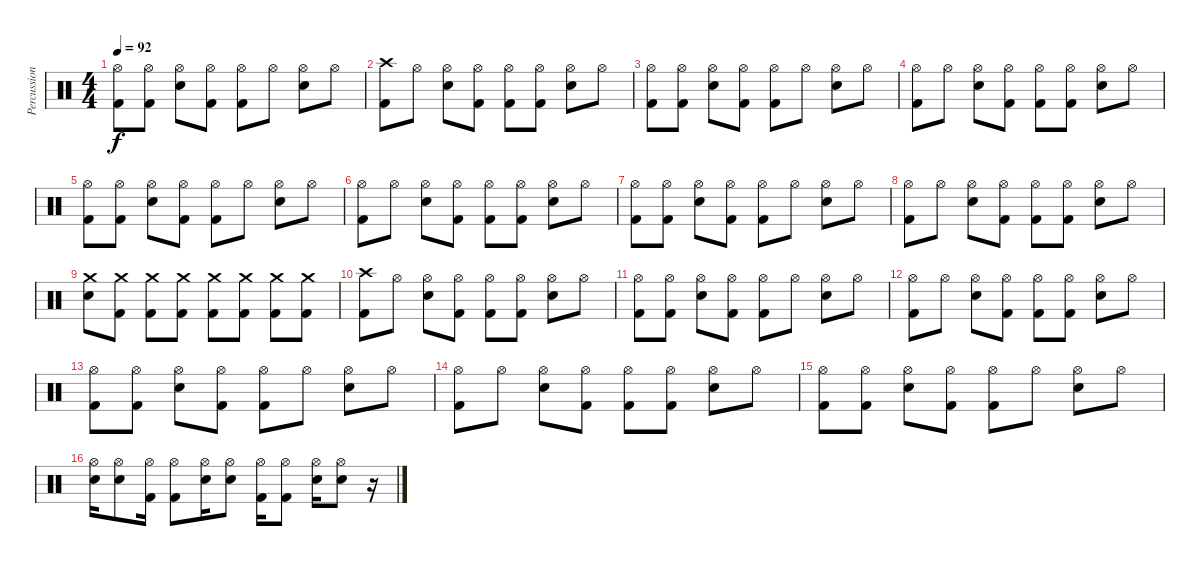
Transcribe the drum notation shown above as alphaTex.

\track ("Percussion" "Percussion") {instrument percussion}
\staff {score}
\articulation defaults
\ts (4 4)
\tempo 92
\clef neutral
\ks c
("Hi-Hat (open)" "Kick (hit) 2").8{dy f} ("Hi-Hat (open)" "Kick (hit) 2").8 ("Hi-Hat (open)" "Electric Snare (hit)").8 ("Hi-Hat (open)" "Kick (hit) 2").8 ("Hi-Hat (open)" "Kick (hit) 2").8 "Hi-Hat (open)".8 ("Hi-Hat (open)" "Electric Snare (hit)").8 "Hi-Hat (open)".8 |
("Crash high (hit)" "Kick (hit) 2").8 "Hi-Hat (open)".8 ("Hi-Hat (open)" "Electric Snare (hit)").8 ("Hi-Hat (open)" "Kick (hit) 2").8 ("Hi-Hat (open)" "Kick (hit) 2").8 ("Hi-Hat (open)" "Kick (hit) 2").8 ("Hi-Hat (open)" "Electric Snare (hit)").8 "Hi-Hat (open)".8 |
("Hi-Hat (open)" "Kick (hit) 2").8 ("Hi-Hat (open)" "Kick (hit) 2").8 ("Hi-Hat (open)" "Electric Snare (hit)").8 ("Hi-Hat (open)" "Kick (hit) 2").8 ("Hi-Hat (open)" "Kick (hit) 2").8 "Hi-Hat (open)".8 ("Hi-Hat (open)" "Electric Snare (hit)").8 "Hi-Hat (open)".8 |
("Hi-Hat (open)" "Kick (hit) 2").8 "Hi-Hat (open)".8 ("Hi-Hat (open)" "Electric Snare (hit)").8 ("Hi-Hat (open)" "Kick (hit) 2").8 ("Hi-Hat (open)" "Kick (hit) 2").8 ("Hi-Hat (open)" "Kick (hit) 2").8 ("Hi-Hat (open)" "Electric Snare (hit)").8 "Hi-Hat (open)".8 |
("Hi-Hat (open)" "Kick (hit) 2").8 ("Hi-Hat (open)" "Kick (hit) 2").8 ("Hi-Hat (open)" "Electric Snare (hit)").8 ("Hi-Hat (open)" "Kick (hit) 2").8 ("Hi-Hat (open)" "Kick (hit) 2").8 "Hi-Hat (open)".8 ("Hi-Hat (open)" "Electric Snare (hit)").8 "Hi-Hat (open)".8 |
("Hi-Hat (open)" "Kick (hit) 2").8 "Hi-Hat (open)".8 ("Hi-Hat (open)" "Electric Snare (hit)").8 ("Hi-Hat (open)" "Kick (hit) 2").8 ("Hi-Hat (open)" "Kick (hit) 2").8 ("Hi-Hat (open)" "Kick (hit) 2").8 ("Hi-Hat (open)" "Electric Snare (hit)").8 "Hi-Hat (open)".8 |
("Hi-Hat (open)" "Kick (hit) 2").8 ("Hi-Hat (open)" "Kick (hit) 2").8 ("Hi-Hat (open)" "Electric Snare (hit)").8 ("Hi-Hat (open)" "Kick (hit) 2").8 ("Hi-Hat (open)" "Kick (hit) 2").8 "Hi-Hat (open)".8 ("Hi-Hat (open)" "Electric Snare (hit)").8 "Hi-Hat (open)".8 |
("Hi-Hat (open)" "Kick (hit) 2").8 "Hi-Hat (open)".8 ("Hi-Hat (open)" "Electric Snare (hit)").8 ("Hi-Hat (open)" "Kick (hit) 2").8 ("Hi-Hat (open)" "Kick (hit) 2").8 ("Hi-Hat (open)" "Kick (hit) 2").8 ("Hi-Hat (open)" "Electric Snare (hit)").8 "Hi-Hat (open)".8 |
("Crash medium (hit)" "Snare (hit)").8 ("Crash medium (hit)" "Kick (hit) 2").8 ("Crash medium (hit)" "Kick (hit) 2").8 ("Crash medium (hit)" "Kick (hit) 2").8 ("Crash medium (hit)" "Kick (hit) 2").8 ("Crash medium (hit)" "Kick (hit) 2").8 ("Crash medium (hit)" "Kick (hit) 2").8 ("Crash medium (hit)" "Kick (hit) 2").8 |
("Crash high (hit)" "Kick (hit) 2").8 "Hi-Hat (open)".8 ("Hi-Hat (open)" "Electric Snare (hit)").8 ("Hi-Hat (open)" "Kick (hit) 2").8 ("Hi-Hat (open)" "Kick (hit) 2").8 ("Hi-Hat (open)" "Kick (hit) 2").8 ("Hi-Hat (open)" "Electric Snare (hit)").8 "Hi-Hat (open)".8 |
("Hi-Hat (open)" "Kick (hit) 2").8 ("Hi-Hat (open)" "Kick (hit) 2").8 ("Hi-Hat (open)" "Electric Snare (hit)").8 ("Hi-Hat (open)" "Kick (hit) 2").8 ("Hi-Hat (open)" "Kick (hit) 2").8 "Hi-Hat (open)".8 ("Hi-Hat (open)" "Electric Snare (hit)").8 "Hi-Hat (open)".8 |
("Hi-Hat (open)" "Kick (hit) 2").8 "Hi-Hat (open)".8 ("Hi-Hat (open)" "Electric Snare (hit)").8 ("Hi-Hat (open)" "Kick (hit) 2").8 ("Hi-Hat (open)" "Kick (hit) 2").8 ("Hi-Hat (open)" "Kick (hit) 2").8 ("Hi-Hat (open)" "Electric Snare (hit)").8 "Hi-Hat (open)".8 |
("Hi-Hat (open)" "Kick (hit) 2").8 ("Hi-Hat (open)" "Kick (hit) 2").8 ("Hi-Hat (open)" "Electric Snare (hit)").8 ("Hi-Hat (open)" "Kick (hit) 2").8 ("Hi-Hat (open)" "Kick (hit) 2").8 "Hi-Hat (open)".8 ("Hi-Hat (open)" "Electric Snare (hit)").8 "Hi-Hat (open)".8 |
("Hi-Hat (open)" "Kick (hit) 2").8 "Hi-Hat (open)".8 ("Hi-Hat (open)" "Electric Snare (hit)").8 ("Hi-Hat (open)" "Kick (hit) 2").8 ("Hi-Hat (open)" "Kick (hit) 2").8 ("Hi-Hat (open)" "Kick (hit) 2").8 ("Hi-Hat (open)" "Electric Snare (hit)").8 "Hi-Hat (open)".8 |
("Hi-Hat (open)" "Kick (hit) 2").8 ("Hi-Hat (open)" "Kick (hit) 2").8 ("Hi-Hat (open)" "Electric Snare (hit)").8 ("Hi-Hat (open)" "Kick (hit) 2").8 ("Hi-Hat (open)" "Kick (hit) 2").8 "Hi-Hat (open)".8 ("Hi-Hat (open)" "Electric Snare (hit)").8 "Hi-Hat (open)".8 |
("Electric Snare (hit)" "Hi-Hat (open)").16 ("Electric Snare (hit)" "Hi-Hat (open)").8 ("Kick (hit) 2" "Hi-Hat (open)").16 ("Kick (hit) 2" "Hi-Hat (open)").8 ("Electric Snare (hit)" "Hi-Hat (open)").16 ("Electric Snare (hit)" "Hi-Hat (open)").8 ("Kick (hit) 2" "Hi-Hat (open)").16 ("Kick (hit) 2" "Hi-Hat (open)").8 ("Electric Snare (hit)" "Hi-Hat (open)").16 ("Electric Snare (hit)" "Hi-Hat (open)").8 r.16
